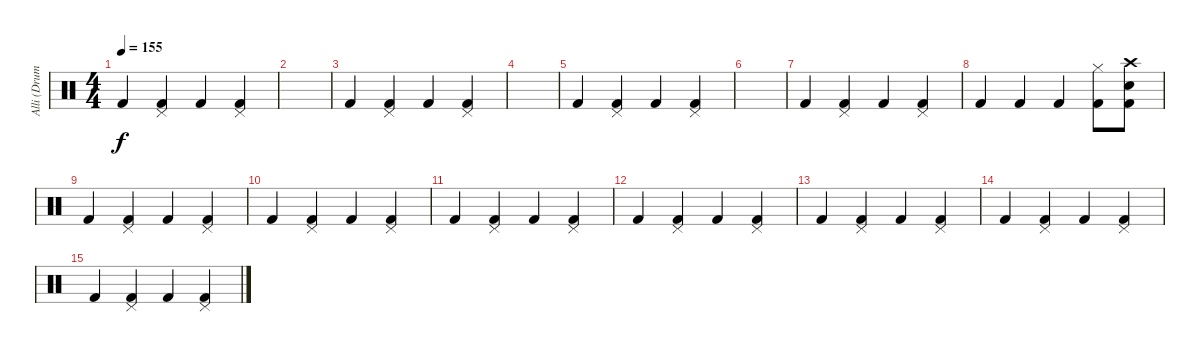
\track ("Alli (Drums)" "Alli (Drum") {instrument percussion}
\staff {score}
\articulation defaults
\ts (4 4)
\tempo 155
\clef neutral
\ks c "Kick (hit) 2".4{dy f}
("Pedal Hi-Hat (hit)" "Kick (hit) 2").4 "Kick (hit) 2".4 ("Pedal Hi-Hat (hit)" "Kick (hit) 2").4 |
|
"Kick (hit) 2".4 ("Pedal Hi-Hat (hit)" "Kick (hit) 2").4 "Kick (hit) 2".4 ("Pedal Hi-Hat (hit)" "Kick (hit) 2").4 |
|
"Kick (hit) 2".4 ("Pedal Hi-Hat (hit)" "Kick (hit) 2").4 "Kick (hit) 2".4 ("Pedal Hi-Hat (hit)" "Kick (hit) 2").4 |
|
"Kick (hit) 2".4 ("Pedal Hi-Hat (hit)" "Kick (hit) 2").4 "Kick (hit) 2".4 ("Pedal Hi-Hat (hit)" "Kick (hit) 2").4 |
"Kick (hit) 2".4 "Kick (hit) 2".4 "Kick (hit) 2".4 ("Hi-Hat (closed)" "Kick (hit) 2").8 ("Crash high (hit)" "Electric Snare (hit)" "Kick (hit) 2").8 |
"Kick (hit) 2".4 ("Pedal Hi-Hat (hit)" "Kick (hit) 2").4 "Kick (hit) 2".4 ("Pedal Hi-Hat (hit)" "Kick (hit) 2").4 |
"Kick (hit) 2".4 ("Pedal Hi-Hat (hit)" "Kick (hit) 2").4 "Kick (hit) 2".4 ("Pedal Hi-Hat (hit)" "Kick (hit) 2").4 |
"Kick (hit) 2".4 ("Pedal Hi-Hat (hit)" "Kick (hit) 2").4 "Kick (hit) 2".4 ("Pedal Hi-Hat (hit)" "Kick (hit) 2").4 |
"Kick (hit) 2".4 ("Pedal Hi-Hat (hit)" "Kick (hit) 2").4 "Kick (hit) 2".4 ("Pedal Hi-Hat (hit)" "Kick (hit) 2").4 |
"Kick (hit) 2".4 ("Pedal Hi-Hat (hit)" "Kick (hit) 2").4 "Kick (hit) 2".4 ("Pedal Hi-Hat (hit)" "Kick (hit) 2").4 |
"Kick (hit) 2".4 ("Pedal Hi-Hat (hit)" "Kick (hit) 2").4 "Kick (hit) 2".4 ("Pedal Hi-Hat (hit)" "Kick (hit) 2").4 |
"Kick (hit) 2".4 ("Pedal Hi-Hat (hit)" "Kick (hit) 2").4 "Kick (hit) 2".4 ("Pedal Hi-Hat (hit)" "Kick (hit) 2").4
